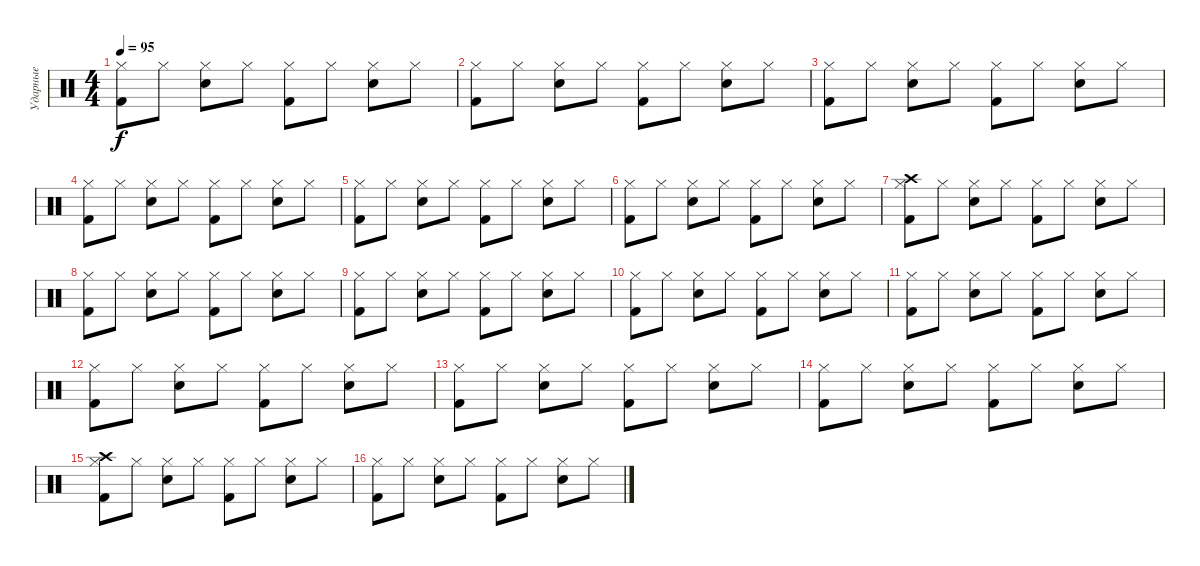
\track ("Ударные" "Ударные") {instrument percussion}
\staff {score}
\articulation defaults
\ts (4 4)
\tempo 95
\clef neutral
\ks c
("Hi-Hat (closed)" "Kick (hit) 2").8{dy f} "Hi-Hat (closed)".8 ("Hi-Hat (closed)" "Snare (hit) 2").8 "Hi-Hat (closed)".8 ("Hi-Hat (closed)" "Kick (hit) 2").8 "Hi-Hat (closed)".8 ("Hi-Hat (closed)" "Snare (hit) 2").8 "Hi-Hat (closed)".8 |
("Hi-Hat (closed)" "Kick (hit) 2").8 "Hi-Hat (closed)".8 ("Hi-Hat (closed)" "Snare (hit) 2").8 "Hi-Hat (closed)".8 ("Hi-Hat (closed)" "Kick (hit) 2").8 "Hi-Hat (closed)".8 ("Hi-Hat (closed)" "Snare (hit) 2").8 "Hi-Hat (closed)".8 |
("Hi-Hat (closed)" "Kick (hit) 2").8 "Hi-Hat (closed)".8 ("Hi-Hat (closed)" "Snare (hit) 2").8 "Hi-Hat (closed)".8 ("Hi-Hat (closed)" "Kick (hit) 2").8 "Hi-Hat (closed)".8 ("Hi-Hat (closed)" "Snare (hit) 2").8 "Hi-Hat (closed)".8 |
("Hi-Hat (closed)" "Kick (hit) 2").8 "Hi-Hat (closed)".8 ("Hi-Hat (closed)" "Snare (hit) 2").8 "Hi-Hat (closed)".8 ("Hi-Hat (closed)" "Kick (hit) 2").8 "Hi-Hat (closed)".8 ("Hi-Hat (closed)" "Snare (hit) 2").8 "Hi-Hat (closed)".8 |
("Hi-Hat (closed)" "Kick (hit) 2").8 "Hi-Hat (closed)".8 ("Hi-Hat (closed)" "Snare (hit) 2").8 "Hi-Hat (closed)".8 ("Hi-Hat (closed)" "Kick (hit) 2").8 "Hi-Hat (closed)".8 ("Hi-Hat (closed)" "Snare (hit) 2").8 "Hi-Hat (closed)".8 |
("Hi-Hat (closed)" "Kick (hit) 2").8 "Hi-Hat (closed)".8 ("Hi-Hat (closed)" "Snare (hit) 2").8 "Hi-Hat (closed)".8 ("Hi-Hat (closed)" "Kick (hit) 2").8 "Hi-Hat (closed)".8 ("Hi-Hat (closed)" "Snare (hit) 2").8 "Hi-Hat (closed)".8 |
("Crash high (hit)" "Hi-Hat (closed)" "Kick (hit) 2").8 "Hi-Hat (closed)".8 ("Hi-Hat (closed)" "Snare (hit) 2").8 "Hi-Hat (closed)".8 ("Hi-Hat (closed)" "Kick (hit) 2").8 "Hi-Hat (closed)".8 ("Hi-Hat (closed)" "Snare (hit) 2").8 "Hi-Hat (closed)".8 |
("Hi-Hat (closed)" "Kick (hit) 2").8 "Hi-Hat (closed)".8 ("Hi-Hat (closed)" "Snare (hit) 2").8 "Hi-Hat (closed)".8 ("Hi-Hat (closed)" "Kick (hit) 2").8 "Hi-Hat (closed)".8 ("Hi-Hat (closed)" "Snare (hit) 2").8 "Hi-Hat (closed)".8 |
("Hi-Hat (closed)" "Kick (hit) 2").8 "Hi-Hat (closed)".8 ("Hi-Hat (closed)" "Snare (hit) 2").8 "Hi-Hat (closed)".8 ("Hi-Hat (closed)" "Kick (hit) 2").8 "Hi-Hat (closed)".8 ("Hi-Hat (closed)" "Snare (hit) 2").8 "Hi-Hat (closed)".8 |
("Hi-Hat (closed)" "Kick (hit) 2").8 "Hi-Hat (closed)".8 ("Hi-Hat (closed)" "Snare (hit) 2").8 "Hi-Hat (closed)".8 ("Hi-Hat (closed)" "Kick (hit) 2").8 "Hi-Hat (closed)".8 ("Hi-Hat (closed)" "Snare (hit) 2").8 "Hi-Hat (closed)".8 |
("Hi-Hat (closed)" "Kick (hit) 2").8 "Hi-Hat (closed)".8 ("Hi-Hat (closed)" "Snare (hit) 2").8 "Hi-Hat (closed)".8 ("Hi-Hat (closed)" "Kick (hit) 2").8 "Hi-Hat (closed)".8 ("Hi-Hat (closed)" "Snare (hit) 2").8 "Hi-Hat (closed)".8 |
("Hi-Hat (closed)" "Kick (hit) 2").8 "Hi-Hat (closed)".8 ("Hi-Hat (closed)" "Snare (hit) 2").8 "Hi-Hat (closed)".8 ("Hi-Hat (closed)" "Kick (hit) 2").8 "Hi-Hat (closed)".8 ("Hi-Hat (closed)" "Snare (hit) 2").8 "Hi-Hat (closed)".8 |
("Hi-Hat (closed)" "Kick (hit) 2").8 "Hi-Hat (closed)".8 ("Hi-Hat (closed)" "Snare (hit) 2").8 "Hi-Hat (closed)".8 ("Hi-Hat (closed)" "Kick (hit) 2").8 "Hi-Hat (closed)".8 ("Hi-Hat (closed)" "Snare (hit) 2").8 "Hi-Hat (closed)".8 |
("Hi-Hat (closed)" "Kick (hit) 2").8 "Hi-Hat (closed)".8 ("Hi-Hat (closed)" "Snare (hit) 2").8 "Hi-Hat (closed)".8 ("Hi-Hat (closed)" "Kick (hit) 2").8 "Hi-Hat (closed)".8 ("Hi-Hat (closed)" "Snare (hit) 2").8 "Hi-Hat (closed)".8 |
("Crash high (hit)" "Hi-Hat (closed)" "Kick (hit) 2").8 "Hi-Hat (closed)".8 ("Hi-Hat (closed)" "Snare (hit) 2").8 "Hi-Hat (closed)".8 ("Hi-Hat (closed)" "Kick (hit) 2").8 "Hi-Hat (closed)".8 ("Hi-Hat (closed)" "Snare (hit) 2").8 "Hi-Hat (closed)".8 |
("Hi-Hat (closed)" "Kick (hit) 2").8 "Hi-Hat (closed)".8 ("Hi-Hat (closed)" "Snare (hit) 2").8 "Hi-Hat (closed)".8 ("Hi-Hat (closed)" "Kick (hit) 2").8 "Hi-Hat (closed)".8 ("Hi-Hat (closed)" "Snare (hit) 2").8 "Hi-Hat (closed)".8
